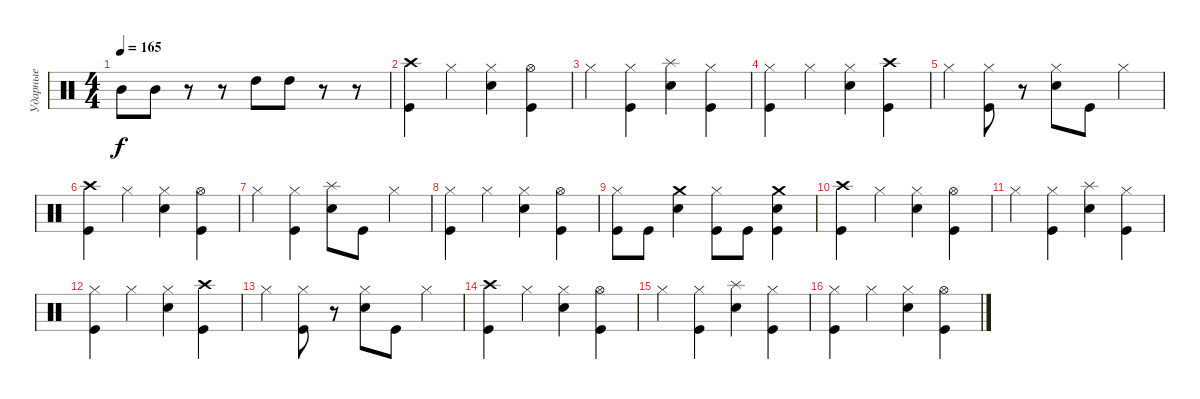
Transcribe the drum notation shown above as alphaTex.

\track ("Ударные" "Ударные") {instrument percussion}
\staff {score}
\articulation defaults
\ts (4 4)
\tempo 165
\clef neutral
\ks c "Mid Tom (hit)".8{dy f} "Mid Tom (hit)".8
r.8 r.8 "High Tom (hit)".8 "High Tom (hit)".8 r.8 r.8 |
("Crash high (hit)" "Kick (hit)").4 "Hi-Hat (closed)".4 ("Hi-Hat (closed)" "Electric Snare (hit)").4 ("Hi-Hat (open)" "Kick (hit)").4 |
"Hi-Hat (closed)".4 ("Hi-Hat (closed)" "Kick (hit)").4 ("Splash (hit)" "Electric Snare (hit)").4 ("Hi-Hat (closed)" "Kick (hit)").4 |
("Hi-Hat (closed)" "Kick (hit)").4 "Hi-Hat (closed)".4 ("Hi-Hat (closed)" "Electric Snare (hit)").4 ("Crash high (hit)" "Kick (hit)").4 |
"Hi-Hat (closed)".4 ("Hi-Hat (closed)" "Kick (hit)").8 r.8 ("Hi-Hat (closed)" "Electric Snare (hit)").8 "Kick (hit)".8 "Hi-Hat (closed)".4 |
("Crash high (hit)" "Kick (hit)").4 "Hi-Hat (closed)".4 ("Hi-Hat (closed)" "Electric Snare (hit)").4 ("Hi-Hat (open)" "Kick (hit)").4 |
"Hi-Hat (closed)".4 ("Hi-Hat (closed)" "Kick (hit)").4 ("Splash (hit)" "Electric Snare (hit)").8 "Kick (hit)".8 "Hi-Hat (closed)".4 |
("Hi-Hat (closed)" "Kick (hit)").4 "Hi-Hat (closed)".4 ("Hi-Hat (closed)" "Electric Snare (hit)").4 ("Hi-Hat (open)" "Kick (hit)").4 |
("Hi-Hat (closed)" "Kick (hit)").8 "Kick (hit)".8 ("Crash medium (hit)" "Electric Snare (hit)").4 ("Hi-Hat (closed)" "Kick (hit)").8 "Kick (hit)".8 ("Crash medium (hit)" "Electric Snare (hit)" "Kick (hit)").4 |
("Crash high (hit)" "Kick (hit)").4 "Hi-Hat (closed)".4 ("Hi-Hat (closed)" "Electric Snare (hit)").4 ("Hi-Hat (open)" "Kick (hit)").4 |
"Hi-Hat (closed)".4 ("Hi-Hat (closed)" "Kick (hit)").4 ("Splash (hit)" "Electric Snare (hit)").4 ("Hi-Hat (closed)" "Kick (hit)").4 |
("Hi-Hat (closed)" "Kick (hit)").4 "Hi-Hat (closed)".4 ("Hi-Hat (closed)" "Electric Snare (hit)").4 ("Crash high (hit)" "Kick (hit)").4 |
"Hi-Hat (closed)".4 ("Hi-Hat (closed)" "Kick (hit)").8 r.8 ("Hi-Hat (closed)" "Electric Snare (hit)").8 "Kick (hit)".8 "Hi-Hat (closed)".4 |
("Crash high (hit)" "Kick (hit)").4 "Hi-Hat (closed)".4 ("Hi-Hat (closed)" "Electric Snare (hit)").4 ("Hi-Hat (open)" "Kick (hit)").4 |
"Hi-Hat (closed)".4 ("Hi-Hat (closed)" "Kick (hit)").4 ("Splash (hit)" "Electric Snare (hit)").4 ("Hi-Hat (closed)" "Kick (hit)").4 |
("Hi-Hat (closed)" "Kick (hit)").4 "Hi-Hat (closed)".4 ("Hi-Hat (closed)" "Electric Snare (hit)").4 ("Hi-Hat (open)" "Kick (hit)").4
